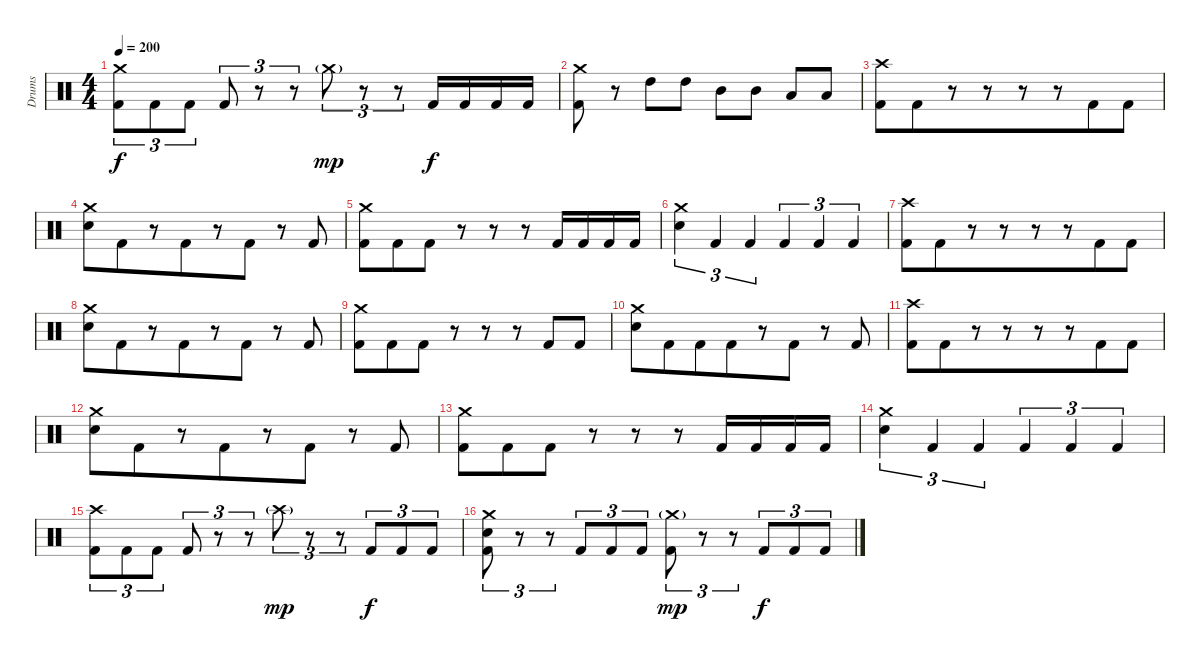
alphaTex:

\track ("Drums" "Drums") {instrument percussion}
\staff {score}
\articulation defaults
\ts (4 4)
\tempo 200
\clef neutral
\ks c
("Crash medium (hit)" "Kick (hit) 2").8{tu (3 2) dy f} "Kick (hit) 2".8{tu (3 2) beam merge} "Kick (hit) 2".8{tu (3 2)} "Kick (hit) 2".8{tu (3 2)} r.8{tu (3 2) beam merge} r.8{tu (3 2)} "Crash medium (hit)"{g}.8{tu (3 2) dy mp} r.8{tu (3 2) beam merge} r.8{tu (3 2)} "Kick (hit) 2".16{dy f} "Kick (hit) 2".16{beam merge} "Kick (hit) 2".16 "Kick (hit) 2".16 |
("Crash medium (hit)" "Kick (hit) 2").8 r.8{beam merge} "High Tom (hit)".8 "High Tom (hit)".8 "Mid Tom (hit)".8{beam merge} "Mid Tom (hit)".8 "Low Tom (hit)".8{beam merge} "Low Tom (hit)".8 |
("Crash high (hit)" "Kick (hit) 2").8 "Kick (hit) 2".8{beam merge} r.8 r.8 r.8{beam merge} r.8 "Kick (hit) 2".8{beam merge} "Kick (hit) 2".8 |
("Crash medium (hit)" "Electric Snare (hit)").8 "Kick (hit) 2".8{beam merge} r.8 "Kick (hit) 2".8{beam merge} r.8 "Kick (hit) 2".8 r.8{beam merge} "Kick (hit) 2".8 |
("Crash medium (hit)" "Kick (hit) 2").8 "Kick (hit) 2".8{beam merge} "Kick (hit) 2".8 r.8 r.8{beam merge} r.8 "Kick (hit) 2".16{beam merge} "Kick (hit) 2".16{beam merge} "Kick (hit) 2".16 "Kick (hit) 2".16 |
("Crash medium (hit)" "Electric Snare (hit)").4{tu (3 2)} "Kick (hit) 2".4{tu (3 2) beam merge} "Kick (hit) 2".4{tu (3 2)} "Kick (hit) 2".4{tu (3 2) beam merge} "Kick (hit) 2".4{tu (3 2)} "Kick (hit) 2".4{tu (3 2)} |
("Crash high (hit)" "Kick (hit) 2").8 "Kick (hit) 2".8{beam merge} r.8 r.8 r.8{beam merge} r.8 "Kick (hit) 2".8{beam merge} "Kick (hit) 2".8 |
("Crash medium (hit)" "Electric Snare (hit)").8 "Kick (hit) 2".8{beam merge} r.8 "Kick (hit) 2".8{beam merge} r.8 "Kick (hit) 2".8 r.8{beam merge} "Kick (hit) 2".8 |
("Crash medium (hit)" "Kick (hit) 2").8 "Kick (hit) 2".8{beam merge} "Kick (hit) 2".8 r.8 r.8{beam merge} r.8 "Kick (hit) 2".8{beam merge} "Kick (hit) 2".8 |
("Crash medium (hit)" "Electric Snare (hit)").8 "Kick (hit) 2".8{beam merge} "Kick (hit) 2".8 "Kick (hit) 2".8{beam merge} r.8 "Kick (hit) 2".8 r.8{beam merge} "Kick (hit) 2".8 |
("Crash high (hit)" "Kick (hit) 2").8 "Kick (hit) 2".8{beam merge} r.8 r.8 r.8{beam merge} r.8 "Kick (hit) 2".8{beam merge} "Kick (hit) 2".8 |
("Crash medium (hit)" "Electric Snare (hit)").8 "Kick (hit) 2".8{beam merge} r.8 "Kick (hit) 2".8{beam merge} r.8 "Kick (hit) 2".8 r.8{beam merge} "Kick (hit) 2".8 |
("Crash medium (hit)" "Kick (hit) 2").8 "Kick (hit) 2".8{beam merge} "Kick (hit) 2".8 r.8 r.8{beam merge} r.8 "Kick (hit) 2".16{beam merge} "Kick (hit) 2".16{beam merge} "Kick (hit) 2".16 "Kick (hit) 2".16 |
("Crash medium (hit)" "Electric Snare (hit)").4{tu (3 2)} "Kick (hit) 2".4{tu (3 2) beam merge} "Kick (hit) 2".4{tu (3 2)} "Kick (hit) 2".4{tu (3 2) beam merge} "Kick (hit) 2".4{tu (3 2)} "Kick (hit) 2".4{tu (3 2)} |
("Crash high (hit)" "Kick (hit) 2").8{tu (3 2)} "Kick (hit) 2".8{tu (3 2) beam merge} "Kick (hit) 2".8{tu (3 2)} "Kick (hit) 2".8{tu (3 2)} r.8{tu (3 2) beam merge} r.8{tu (3 2)} "Crash high (hit)"{g}.8{tu (3 2) dy mp} r.8{tu (3 2) beam merge} r.8{tu (3 2)} "Kick (hit) 2".8{tu (3 2) dy f} "Kick (hit) 2".8{tu (3 2) beam merge} "Kick (hit) 2".8{tu (3 2)} |
("Crash medium (hit)" "Electric Snare (hit)" "Kick (hit) 2").8{tu (3 2)} r.8{tu (3 2) beam merge} r.8{tu (3 2)} "Kick (hit) 2".8{tu (3 2)} "Kick (hit) 2".8{tu (3 2) beam merge} "Kick (hit) 2".8{tu (3 2)} ("Crash medium (hit)"{g} "Kick (hit) 2").8{tu (3 2) dy mp} r.8{tu (3 2) beam merge} r.8{tu (3 2)} "Kick (hit) 2".8{tu (3 2) dy f} "Kick (hit) 2".8{tu (3 2) beam merge} "Kick (hit) 2".8{tu (3 2)}
